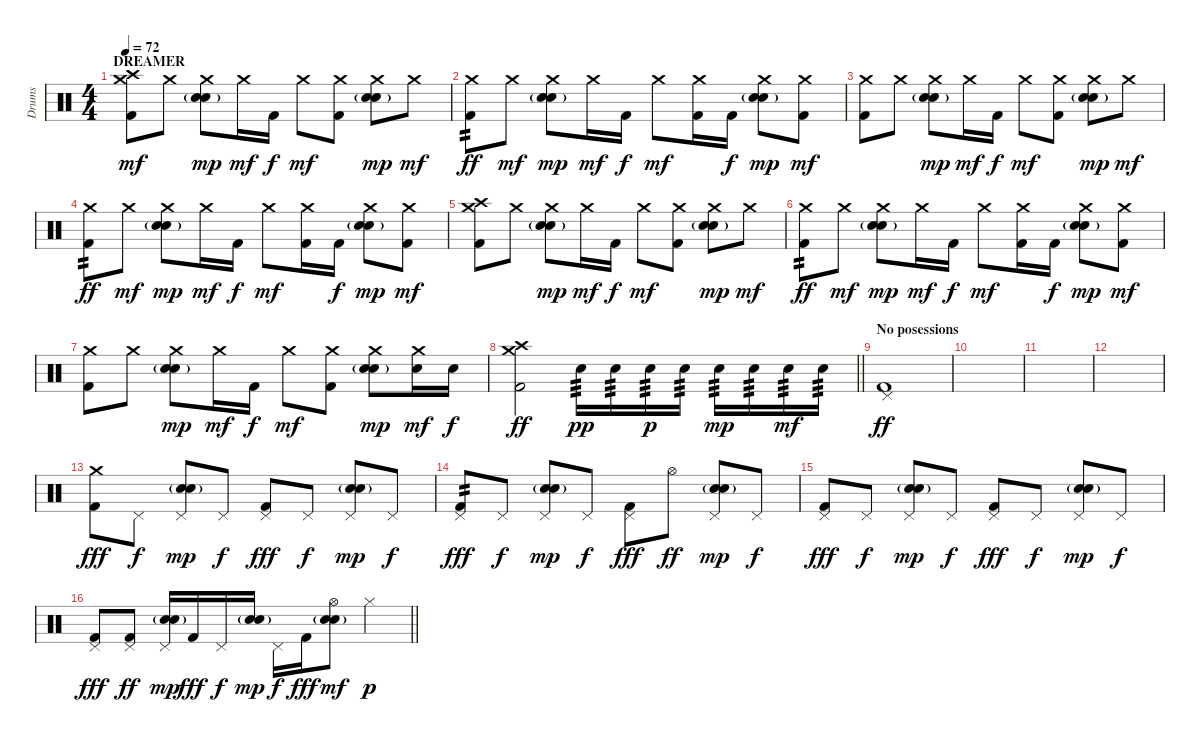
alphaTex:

\track ("Drums" "Drums") {instrument percussion}
\staff {score}
\articulation defaults
\ts (4 4)
\section ("" "DREAMER")
\tempo 72
\clef neutral
\ks c
("Crash medium (hit)" "Crash high (hit)" "Kick (hit) 2").8{dy mf} "Crash medium (hit)".8 ("Crash medium (hit)" "Snare (hit) 2" "Electric Snare (hit)"{g}).8{dy mp} "Crash medium (hit)".16{dy mf} "Kick (hit) 2".16{dy f} "Crash medium (hit)".8{dy mf} ("Crash medium (hit)" "Kick (hit) 2").8 ("Crash medium (hit)" "Snare (hit) 2" "Electric Snare (hit)"{g}).8{dy mp} "Crash medium (hit)".8{dy mf} |
("Crash medium (hit)" "Kick (hit) 2").8{tp 2 dy ff} "Crash medium (hit)".8{dy mf} ("Crash medium (hit)" "Snare (hit) 2" "Electric Snare (hit)"{g}).8{dy mp} "Crash medium (hit)".16{dy mf} "Kick (hit) 2".16{dy f} "Crash medium (hit)".8{dy mf} ("Crash medium (hit)" "Kick (hit) 2").16 "Kick (hit) 2".16{dy f} ("Crash medium (hit)" "Snare (hit) 2" "Electric Snare (hit)"{g}).8{dy mp} ("Crash medium (hit)" "Kick (hit) 2").8{dy mf} |
("Crash medium (hit)" "Kick (hit) 2").8 "Crash medium (hit)".8 ("Crash medium (hit)" "Snare (hit) 2" "Electric Snare (hit)"{g}).8{dy mp} "Crash medium (hit)".16{dy mf} "Kick (hit) 2".16{dy f} "Crash medium (hit)".8{dy mf} ("Crash medium (hit)" "Kick (hit) 2").8 ("Crash medium (hit)" "Snare (hit) 2" "Electric Snare (hit)"{g}).8{dy mp} "Crash medium (hit)".8{dy mf} |
("Crash medium (hit)" "Kick (hit) 2").8{tp 2 dy ff} "Crash medium (hit)".8{dy mf} ("Crash medium (hit)" "Snare (hit) 2" "Electric Snare (hit)"{g}).8{dy mp} "Crash medium (hit)".16{dy mf} "Kick (hit) 2".16{dy f} "Crash medium (hit)".8{dy mf} ("Crash medium (hit)" "Kick (hit) 2").16 "Kick (hit) 2".16{dy f} ("Crash medium (hit)" "Snare (hit) 2" "Electric Snare (hit)"{g}).8{dy mp} ("Crash medium (hit)" "Kick (hit) 2").8{dy mf} |
("Crash medium (hit)" "Crash high (hit)" "Kick (hit) 2").8 "Crash medium (hit)".8 ("Crash medium (hit)" "Snare (hit) 2" "Electric Snare (hit)"{g}).8{dy mp} "Crash medium (hit)".16{dy mf} "Kick (hit) 2".16{dy f} "Crash medium (hit)".8{dy mf} ("Crash medium (hit)" "Kick (hit) 2").8 ("Crash medium (hit)" "Snare (hit) 2" "Electric Snare (hit)"{g}).8{dy mp} "Crash medium (hit)".8{dy mf} |
("Crash medium (hit)" "Kick (hit) 2").8{tp 2 dy ff} "Crash medium (hit)".8{dy mf} ("Crash medium (hit)" "Snare (hit) 2" "Electric Snare (hit)"{g}).8{dy mp} "Crash medium (hit)".16{dy mf} "Kick (hit) 2".16{dy f} "Crash medium (hit)".8{dy mf} ("Crash medium (hit)" "Kick (hit) 2").16 "Kick (hit) 2".16{dy f} ("Crash medium (hit)" "Snare (hit) 2" "Electric Snare (hit)"{g}).8{dy mp} ("Crash medium (hit)" "Kick (hit) 2").8{dy mf} |
("Crash medium (hit)" "Kick (hit) 2").8 "Crash medium (hit)".8 ("Crash medium (hit)" "Snare (hit) 2" "Electric Snare (hit)"{g}).8{dy mp} "Crash medium (hit)".16{dy mf} "Kick (hit) 2".16{dy f} "Crash medium (hit)".8{dy mf} ("Crash medium (hit)" "Kick (hit) 2").8 ("Crash medium (hit)" "Snare (hit) 2" "Electric Snare (hit)"{g}).8{dy mp} ("Crash medium (hit)" "Electric Snare (hit)").16{dy mf} "Electric Snare (hit)".16{dy f} |
\barLineRight lightlight
("Crash medium (hit)" "Crash high (hit)" "Kick (hit) 2").2{dy ff} "Electric Snare (hit)".16{bd 240 tp 3 dy pp} "Electric Snare (hit)".16{bd 240 tp 3} "Electric Snare (hit)".16{bd 240 tp 3 dy p} "Electric Snare (hit)".16{bd 240 tp 3} "Electric Snare (hit)".16{bd 240 tp 3 dy mp} "Electric Snare (hit)".16{bd 240 tp 3} "Electric Snare (hit)".16{bd 240 tp 3 dy mf} "Electric Snare (hit)".16{bd 240 tp 3} |
\section ("" "No posessions")
("Pedal Hi-Hat (hit)" "Kick (hit) 2").1{dy ff} |
|
|
|
("Crash medium (hit)" "Kick (hit) 2").8{dy fff} "Pedal Hi-Hat (hit)".8{dy f} ("Pedal Hi-Hat (hit)" "Snare (hit) 2" "Electric Snare (hit)"{g}).8{dy mp} "Pedal Hi-Hat (hit)".8{dy f} ("Pedal Hi-Hat (hit)" "Kick (hit) 2").8{dy fff} "Pedal Hi-Hat (hit)".8{dy f} ("Pedal Hi-Hat (hit)" "Snare (hit) 2" "Electric Snare (hit)"{g}).8{dy mp} "Pedal Hi-Hat (hit)".8{dy f} |
("Pedal Hi-Hat (hit)" "Kick (hit) 2").8{tp 2 dy fff} "Pedal Hi-Hat (hit)".8{dy f} ("Pedal Hi-Hat (hit)" "Snare (hit) 2" "Electric Snare (hit)"{g}).8{dy mp} "Pedal Hi-Hat (hit)".8{dy f} ("Pedal Hi-Hat (hit)" "Kick (hit) 2").8{dy fff} "Hi-Hat (open)".8{dy ff} ("Pedal Hi-Hat (hit)" "Snare (hit) 2" "Electric Snare (hit)"{g}).8{dy mp} "Pedal Hi-Hat (hit)".8{dy f} |
("Pedal Hi-Hat (hit)" "Kick (hit) 2").8{dy fff} "Pedal Hi-Hat (hit)".8{dy f} ("Pedal Hi-Hat (hit)" "Snare (hit) 2" "Electric Snare (hit)"{g}).8{dy mp} "Pedal Hi-Hat (hit)".8{dy f} ("Pedal Hi-Hat (hit)" "Kick (hit) 2").8{dy fff} "Pedal Hi-Hat (hit)".8{dy f} ("Pedal Hi-Hat (hit)" "Snare (hit) 2" "Electric Snare (hit)"{g}).8{dy mp} "Pedal Hi-Hat (hit)".8{dy f} |
\barLineRight lightlight
("Pedal Hi-Hat (hit)" "Kick (hit) 2").8{dy fff} ("Pedal Hi-Hat (hit)" "Kick (hit) 2").8{dy ff} ("Pedal Hi-Hat (hit)" "Snare (hit) 2" "Electric Snare (hit)"{g}).16{dy mp} "Kick (hit) 2".16{dy fff} "Pedal Hi-Hat (hit)".16{dy f} ("Snare (hit) 2" "Electric Snare (hit)"{g}).16{dy mp} "Pedal Hi-Hat (hit)".16{dy f} "Kick (hit) 2".16{dy fff} ("Hi-Hat (open)" "Snare (hit) 2" "Electric Snare (hit)"{g}).8{dy mf} "Hi-Hat (closed)".4{dy p}
